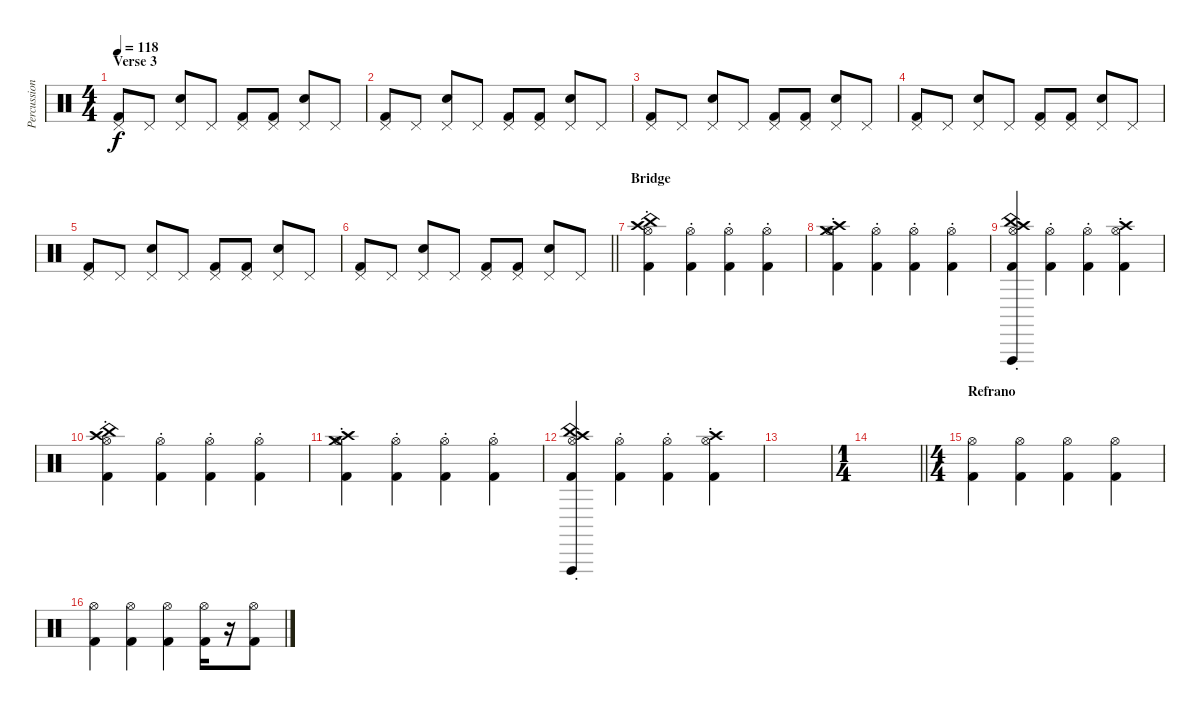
\track ("Percussion" "Percussion") {instrument percussion}
\staff {score}
\articulation defaults
\ts (4 4)
\section ("" "Verse 3")
\tempo 118
\clef neutral
\ks c
("Pedal Hi-Hat (hit)" "Kick (hit) 2").8{dy f} "Pedal Hi-Hat (hit)".8 ("Pedal Hi-Hat (hit)" "Electric Snare (hit)").8 "Pedal Hi-Hat (hit)".8 ("Pedal Hi-Hat (hit)" "Kick (hit) 2").8 ("Pedal Hi-Hat (hit)" "Kick (hit) 2").8 ("Pedal Hi-Hat (hit)" "Electric Snare (hit)").8 "Pedal Hi-Hat (hit)".8 |
("Pedal Hi-Hat (hit)" "Kick (hit) 2").8 "Pedal Hi-Hat (hit)".8 ("Pedal Hi-Hat (hit)" "Electric Snare (hit)").8 "Pedal Hi-Hat (hit)".8 ("Pedal Hi-Hat (hit)" "Kick (hit) 2").8 ("Pedal Hi-Hat (hit)" "Kick (hit) 2").8 ("Pedal Hi-Hat (hit)" "Electric Snare (hit)").8 "Pedal Hi-Hat (hit)".8 |
("Pedal Hi-Hat (hit)" "Kick (hit) 2").8 "Pedal Hi-Hat (hit)".8 ("Pedal Hi-Hat (hit)" "Electric Snare (hit)").8 "Pedal Hi-Hat (hit)".8 ("Pedal Hi-Hat (hit)" "Kick (hit) 2").8 ("Pedal Hi-Hat (hit)" "Kick (hit) 2").8 ("Pedal Hi-Hat (hit)" "Electric Snare (hit)").8 "Pedal Hi-Hat (hit)".8 |
("Pedal Hi-Hat (hit)" "Kick (hit) 2").8 "Pedal Hi-Hat (hit)".8 ("Pedal Hi-Hat (hit)" "Electric Snare (hit)").8 "Pedal Hi-Hat (hit)".8 ("Pedal Hi-Hat (hit)" "Kick (hit) 2").8 ("Pedal Hi-Hat (hit)" "Kick (hit) 2").8 ("Pedal Hi-Hat (hit)" "Electric Snare (hit)").8 "Pedal Hi-Hat (hit)".8 |
("Pedal Hi-Hat (hit)" "Kick (hit) 2").8 "Pedal Hi-Hat (hit)".8 ("Pedal Hi-Hat (hit)" "Electric Snare (hit)").8 "Pedal Hi-Hat (hit)".8 ("Pedal Hi-Hat (hit)" "Kick (hit) 2").8 ("Pedal Hi-Hat (hit)" "Kick (hit) 2").8 ("Pedal Hi-Hat (hit)" "Electric Snare (hit)").8 "Pedal Hi-Hat (hit)".8 |
\barLineRight lightlight
("Pedal Hi-Hat (hit)" "Kick (hit) 2").8 "Pedal Hi-Hat (hit)".8 ("Pedal Hi-Hat (hit)" "Electric Snare (hit)").8 "Pedal Hi-Hat (hit)".8 ("Pedal Hi-Hat (hit)" "Kick (hit) 2").8 ("Pedal Hi-Hat (hit)" "Kick (hit) 2").8 ("Pedal Hi-Hat (hit)" "Electric Snare (hit)").8 "Pedal Hi-Hat (hit)".8 |
\section ("" "Bridge")
("Hi-Hat (open)"{st} "Kick (hit) 2" "China (hit)" "Crash high (hit)").4 ("Hi-Hat (open)"{st} "Kick (hit) 2").4 ("Hi-Hat (open)"{st} "Kick (hit) 2").4 ("Hi-Hat (open)"{st} "Kick (hit) 2").4 |
("Hi-Hat (open)"{st} "Kick (hit) 2" "Crash medium (hit)" "Crash high (hit)").4 ("Hi-Hat (open)"{st} "Kick (hit) 2").4 ("Hi-Hat (open)"{st} "Kick (hit) 2").4 ("Hi-Hat (open)"{st} "Kick (hit) 2").4 |
("Hi-Hat (open)"{st} "Kick (hit) 2" "China (hit)" "Crash high (hit)" "Vibraslap (hit)").4 ("Hi-Hat (open)"{st} "Kick (hit) 2").4 ("Hi-Hat (open)"{st} "Kick (hit) 2").4 ("Hi-Hat (open)"{st} "Kick (hit) 2" "Crash high (hit)").4 |
("Hi-Hat (open)"{st} "Kick (hit) 2" "China (hit)" "Crash high (hit)").4 ("Hi-Hat (open)"{st} "Kick (hit) 2").4 ("Hi-Hat (open)"{st} "Kick (hit) 2").4 ("Hi-Hat (open)"{st} "Kick (hit) 2").4 |
("Hi-Hat (open)"{st} "Kick (hit) 2" "Crash medium (hit)" "Crash high (hit)").4 ("Hi-Hat (open)"{st} "Kick (hit) 2").4 ("Hi-Hat (open)"{st} "Kick (hit) 2").4 ("Hi-Hat (open)"{st} "Kick (hit) 2").4 |
("Hi-Hat (open)"{st} "Kick (hit) 2" "China (hit)" "Crash high (hit)" "Vibraslap (hit)").4 ("Hi-Hat (open)"{st} "Kick (hit) 2").4 ("Hi-Hat (open)"{st} "Kick (hit) 2").4 ("Hi-Hat (open)"{st} "Kick (hit) 2" "Crash high (hit)").4 |
|
\ts (1 4)
\barLineRight lightlight
|
\ts (4 4)
\section ("" "Refrano")
("Hi-Hat (open)" "Kick (hit) 2").4 ("Hi-Hat (open)" "Kick (hit) 2").4 ("Hi-Hat (open)" "Kick (hit) 2").4 ("Hi-Hat (open)" "Kick (hit) 2").4 |
("Hi-Hat (open)" "Kick (hit) 2").4 ("Hi-Hat (open)" "Kick (hit) 2").4 ("Hi-Hat (open)" "Kick (hit) 2").4 ("Hi-Hat (open)" "Kick (hit) 2").16 r.16 ("Hi-Hat (open)" "Kick (hit) 2").8
